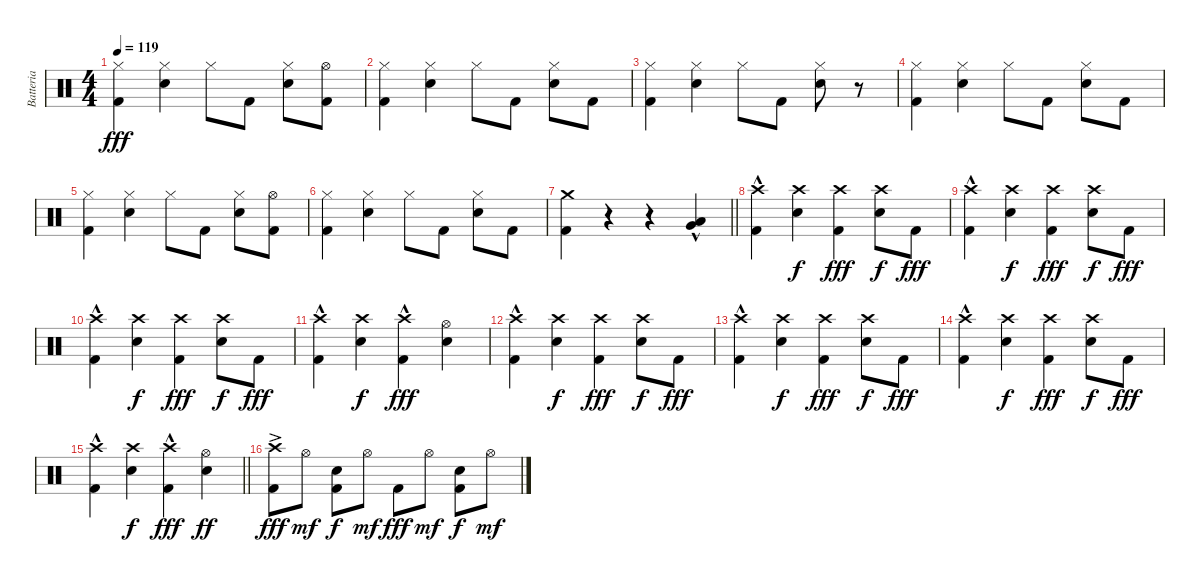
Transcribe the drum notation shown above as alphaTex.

\track ("Batteria" "Batteria") {instrument percussion}
\staff {score}
\articulation defaults
\ts (4 4)
\tempo 119
\clef neutral
\ks c
("Hi-Hat (closed)" "Kick (hit) 2").4{dy fff} ("Hi-Hat (closed)" "Electric Snare (hit)").4 "Hi-Hat (closed)".8 "Kick (hit) 2".8 ("Hi-Hat (closed)" "Electric Snare (hit)").8 ("Hi-Hat (open)" "Kick (hit) 2").8 |
("Hi-Hat (closed)" "Kick (hit) 2").4 ("Hi-Hat (closed)" "Electric Snare (hit)").4 "Hi-Hat (closed)".8 "Kick (hit) 2".8 ("Hi-Hat (closed)" "Electric Snare (hit)").8 "Kick (hit) 2".8 |
("Hi-Hat (closed)" "Kick (hit) 2").4 ("Hi-Hat (closed)" "Electric Snare (hit)").4 "Hi-Hat (closed)".8 "Kick (hit) 2".8 ("Hi-Hat (closed)" "Electric Snare (hit)").8 r.8 |
("Hi-Hat (closed)" "Kick (hit) 2").4 ("Hi-Hat (closed)" "Electric Snare (hit)").4 "Hi-Hat (closed)".8 "Kick (hit) 2".8 ("Hi-Hat (closed)" "Electric Snare (hit)").8 "Kick (hit) 2".8 |
("Hi-Hat (closed)" "Kick (hit) 2").4 ("Hi-Hat (closed)" "Electric Snare (hit)").4 "Hi-Hat (closed)".8 "Kick (hit) 2".8 ("Hi-Hat (closed)" "Electric Snare (hit)").8 ("Hi-Hat (open)" "Kick (hit) 2").8 |
("Hi-Hat (closed)" "Kick (hit) 2").4 ("Hi-Hat (closed)" "Electric Snare (hit)").4 "Hi-Hat (closed)".8 "Kick (hit) 2".8 ("Hi-Hat (closed)" "Electric Snare (hit)").8 "Kick (hit) 2".8 |
\barLineRight lightlight
("Crash medium (hit)" "Kick (hit) 2").4 r.4 r.4 ("Very Low Tom (hit)"{hac} "Low Floor Tom (hit)"{hac}).4 |
("Crash high (hit)"{hac} "Kick (hit) 2").4 ("Crash high (hit)" "Electric Snare (hit)").4{dy f} ("Crash high (hit)" "Kick (hit) 2").4{dy fff} ("Crash high (hit)" "Electric Snare (hit)").8{dy f} "Kick (hit) 2".8{dy fff} |
("Crash high (hit)"{hac} "Kick (hit) 2").4 ("Crash high (hit)" "Electric Snare (hit)").4{dy f} ("Crash high (hit)" "Kick (hit) 2").4{dy fff} ("Crash high (hit)" "Electric Snare (hit)").8{dy f} "Kick (hit) 2".8{dy fff} |
("Crash high (hit)"{hac} "Kick (hit) 2").4 ("Crash high (hit)" "Electric Snare (hit)").4{dy f} ("Crash high (hit)" "Kick (hit) 2").4{dy fff} ("Crash high (hit)" "Electric Snare (hit)").8{dy f} "Kick (hit) 2".8{dy fff} |
("Crash high (hit)"{hac} "Kick (hit) 2").4 ("Crash high (hit)" "Electric Snare (hit)").4{dy f} ("Crash high (hit)"{hac} "Kick (hit) 2").4{dy fff} ("Hi-Hat (open)" "Electric Snare (hit)").4 |
("Crash high (hit)"{hac} "Kick (hit) 2").4 ("Crash high (hit)" "Electric Snare (hit)").4{dy f} ("Crash high (hit)" "Kick (hit) 2").4{dy fff} ("Crash high (hit)" "Electric Snare (hit)").8{dy f} "Kick (hit) 2".8{dy fff} |
("Crash high (hit)"{hac} "Kick (hit) 2").4 ("Crash high (hit)" "Electric Snare (hit)").4{dy f} ("Crash high (hit)" "Kick (hit) 2").4{dy fff} ("Crash high (hit)" "Electric Snare (hit)").8{dy f} "Kick (hit) 2".8{dy fff} |
("Crash high (hit)"{hac} "Kick (hit) 2").4 ("Crash high (hit)" "Electric Snare (hit)").4{dy f} ("Crash high (hit)" "Kick (hit) 2").4{dy fff} ("Crash high (hit)" "Electric Snare (hit)").8{dy f} "Kick (hit) 2".8{dy fff} |
\barLineRight lightlight
("Crash high (hit)"{hac} "Kick (hit) 2").4 ("Crash high (hit)" "Electric Snare (hit)").4{dy f} ("Crash high (hit)"{hac} "Kick (hit) 2").4{dy fff} ("Hi-Hat (open)" "Electric Snare (hit)").4{dy ff} |
("Crash high (hit)"{ac} "Kick (hit) 2").8{dy fff} "Hi-Hat (open)".8{dy mf} ("Kick (hit) 2" "Electric Snare (hit)").8{dy f} "Hi-Hat (open)".8{dy mf} "Kick (hit) 2".8{dy fff} "Hi-Hat (open)".8{dy mf} ("Kick (hit) 2" "Electric Snare (hit)").8{dy f} "Hi-Hat (open)".8{dy mf}
